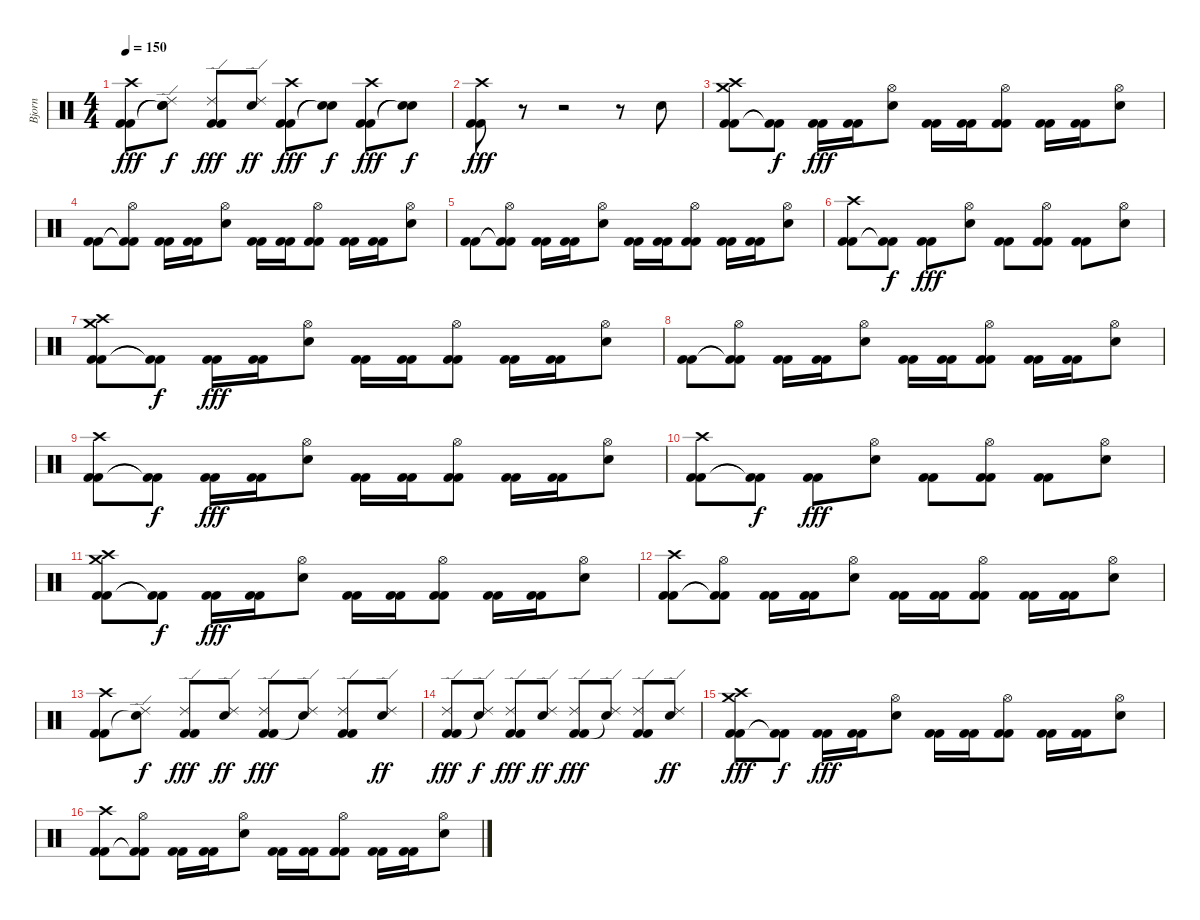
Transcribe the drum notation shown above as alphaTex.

\track ("Bjorn" "Bjorn") {instrument percussion}
\staff {score}
\articulation defaults
\ts (4 4)
\tempo 150
\clef neutral
\ks c
("Kick (hit) 2" "Kick (hit) 2" "Crash high (hit)").8{dy fff} ("Snare (hit)"{t} "Snare (hit)"{t} "Ride (edge) 2").8{dy f} ("Kick (hit) 2" "Kick (hit) 2" "Ride (edge) 2").8{dy fff} ("Snare (hit) 2" "Ride (edge) 2").8{dy ff} ("Kick (hit) 2" "Kick (hit) 2" "Crash high (hit)").8{dy fff} ("Snare (hit)"{t} "Snare (hit)"{t}).8{dy f} ("Kick (hit) 2" "Kick (hit) 2" "Crash high (hit)").8{dy fff} ("Snare (hit)"{t} "Snare (hit)"{t}).8{dy f} |
("Kick (hit) 2" "Kick (hit) 2" "Crash high (hit)").8{dy fff} r.8 r.2 r.8 "Snare (hit) 2".8 |
("Kick (hit) 2" "Kick (hit) 2" "Crash high (hit)" "Crash medium (hit)").8 ("Kick (hit) 2"{t} "Kick (hit) 2"{t}).8{dy f} ("Kick (hit) 2" "Kick (hit) 2").16{dy fff} ("Kick (hit) 2" "Kick (hit) 2").16 ("Snare (hit) 2" "Hi-Hat (open)").8 ("Kick (hit) 2" "Kick (hit) 2").16 ("Kick (hit) 2" "Kick (hit) 2").16 ("Kick (hit) 2" "Kick (hit) 2" "Hi-Hat (open)").8 ("Kick (hit) 2" "Kick (hit) 2").16 ("Kick (hit) 2" "Kick (hit) 2").16 ("Snare (hit) 2" "Hi-Hat (open)").8 |
("Kick (hit) 2" "Kick (hit) 2").8 ("Kick (hit) 2"{t} "Kick (hit) 2"{t} "Hi-Hat (open)").8 ("Kick (hit) 2" "Kick (hit) 2").16 ("Kick (hit) 2" "Kick (hit) 2").16 ("Snare (hit) 2" "Hi-Hat (open)").8 ("Kick (hit) 2" "Kick (hit) 2").16 ("Kick (hit) 2" "Kick (hit) 2").16 ("Kick (hit) 2" "Kick (hit) 2" "Hi-Hat (open)").8 ("Kick (hit) 2" "Kick (hit) 2").16 ("Kick (hit) 2" "Kick (hit) 2").16 ("Snare (hit) 2" "Hi-Hat (open)").8 |
("Kick (hit) 2" "Kick (hit) 2").8 ("Kick (hit) 2"{t} "Kick (hit) 2"{t} "Hi-Hat (open)").8 ("Kick (hit) 2" "Kick (hit) 2").16 ("Kick (hit) 2" "Kick (hit) 2").16 ("Snare (hit) 2" "Hi-Hat (open)").8 ("Kick (hit) 2" "Kick (hit) 2").16 ("Kick (hit) 2" "Kick (hit) 2").16 ("Kick (hit) 2" "Kick (hit) 2" "Hi-Hat (open)").8 ("Kick (hit) 2" "Kick (hit) 2").16 ("Kick (hit) 2" "Kick (hit) 2").16 ("Snare (hit) 2" "Hi-Hat (open)").8 |
("Kick (hit) 2" "Kick (hit) 2" "Crash high (hit)").8 ("Kick (hit) 2"{t} "Kick (hit) 2"{t}).8{dy f} ("Kick (hit) 2" "Kick (hit) 2").8{dy fff} ("Snare (hit) 2" "Hi-Hat (open)").8 ("Kick (hit) 2" "Kick (hit) 2").8 ("Kick (hit) 2" "Kick (hit) 2" "Hi-Hat (open)").8 ("Kick (hit) 2" "Kick (hit) 2").8 ("Snare (hit) 2" "Hi-Hat (open)").8 |
("Kick (hit) 2" "Kick (hit) 2" "Crash high (hit)" "Crash medium (hit)").8 ("Kick (hit) 2"{t} "Kick (hit) 2"{t}).8{dy f} ("Kick (hit) 2" "Kick (hit) 2").16{dy fff} ("Kick (hit) 2" "Kick (hit) 2").16 ("Snare (hit) 2" "Hi-Hat (open)").8 ("Kick (hit) 2" "Kick (hit) 2").16 ("Kick (hit) 2" "Kick (hit) 2").16 ("Kick (hit) 2" "Kick (hit) 2" "Hi-Hat (open)").8 ("Kick (hit) 2" "Kick (hit) 2").16 ("Kick (hit) 2" "Kick (hit) 2").16 ("Snare (hit) 2" "Hi-Hat (open)").8 |
("Kick (hit) 2" "Kick (hit) 2").8 ("Kick (hit) 2"{t} "Kick (hit) 2"{t} "Hi-Hat (open)").8 ("Kick (hit) 2" "Kick (hit) 2").16 ("Kick (hit) 2" "Kick (hit) 2").16 ("Snare (hit) 2" "Hi-Hat (open)").8 ("Kick (hit) 2" "Kick (hit) 2").16 ("Kick (hit) 2" "Kick (hit) 2").16 ("Kick (hit) 2" "Kick (hit) 2" "Hi-Hat (open)").8 ("Kick (hit) 2" "Kick (hit) 2").16 ("Kick (hit) 2" "Kick (hit) 2").16 ("Snare (hit) 2" "Hi-Hat (open)").8 |
("Kick (hit) 2" "Kick (hit) 2" "Crash high (hit)").8 ("Kick (hit) 2"{t} "Kick (hit) 2"{t}).8{dy f} ("Kick (hit) 2" "Kick (hit) 2").16{dy fff} ("Kick (hit) 2" "Kick (hit) 2").16 ("Snare (hit) 2" "Hi-Hat (open)").8 ("Kick (hit) 2" "Kick (hit) 2").16 ("Kick (hit) 2" "Kick (hit) 2").16 ("Kick (hit) 2" "Kick (hit) 2" "Hi-Hat (open)").8 ("Kick (hit) 2" "Kick (hit) 2").16 ("Kick (hit) 2" "Kick (hit) 2").16 ("Snare (hit) 2" "Hi-Hat (open)").8 |
("Kick (hit) 2" "Kick (hit) 2" "Crash high (hit)").8 ("Kick (hit) 2"{t} "Kick (hit) 2"{t}).8{dy f} ("Kick (hit) 2" "Kick (hit) 2").8{dy fff} ("Snare (hit) 2" "Hi-Hat (open)").8 ("Kick (hit) 2" "Kick (hit) 2").8 ("Kick (hit) 2" "Kick (hit) 2" "Hi-Hat (open)").8 ("Kick (hit) 2" "Kick (hit) 2").8 ("Snare (hit) 2" "Hi-Hat (open)").8 |
("Kick (hit) 2" "Kick (hit) 2" "Crash high (hit)" "Crash medium (hit)").8 ("Kick (hit) 2"{t} "Kick (hit) 2"{t}).8{dy f} ("Kick (hit) 2" "Kick (hit) 2").16{dy fff} ("Kick (hit) 2" "Kick (hit) 2").16 ("Snare (hit) 2" "Hi-Hat (open)").8 ("Kick (hit) 2" "Kick (hit) 2").16 ("Kick (hit) 2" "Kick (hit) 2").16 ("Kick (hit) 2" "Kick (hit) 2" "Hi-Hat (open)").8 ("Kick (hit) 2" "Kick (hit) 2").16 ("Kick (hit) 2" "Kick (hit) 2").16 ("Snare (hit) 2" "Hi-Hat (open)").8 |
("Kick (hit) 2" "Kick (hit) 2" "Crash high (hit)").8 ("Kick (hit) 2"{t} "Kick (hit) 2"{t} "Hi-Hat (open)").8 ("Kick (hit) 2" "Kick (hit) 2").16 ("Kick (hit) 2" "Kick (hit) 2").16 ("Snare (hit) 2" "Hi-Hat (open)").8 ("Kick (hit) 2" "Kick (hit) 2").16 ("Kick (hit) 2" "Kick (hit) 2").16 ("Kick (hit) 2" "Kick (hit) 2" "Hi-Hat (open)").8 ("Kick (hit) 2" "Kick (hit) 2").16 ("Kick (hit) 2" "Kick (hit) 2").16 ("Snare (hit) 2" "Hi-Hat (open)").8 |
("Kick (hit) 2" "Kick (hit) 2" "Crash high (hit)").8 ("Snare (hit)"{t} "Ride (edge) 2").8{dy f} ("Kick (hit) 2" "Kick (hit) 2" "Ride (edge) 2").8{dy fff} ("Snare (hit) 2" "Ride (edge) 2").8{dy ff} ("Kick (hit) 2" "Kick (hit) 2" "Ride (edge) 2").8{dy fff} ("Snare (hit)"{t} "Ride (edge) 2").8 ("Kick (hit) 2" "Kick (hit) 2" "Ride (edge) 2").8 ("Snare (hit) 2" "Ride (edge) 2").8{dy ff} |
("Kick (hit) 2" "Kick (hit) 2" "Ride (edge) 2").8{dy fff} ("Snare (hit)"{t} "Ride (edge) 2").8{dy f} ("Kick (hit) 2" "Kick (hit) 2" "Ride (edge) 2").8{dy fff} ("Snare (hit) 2" "Ride (edge) 2").8{dy ff} ("Kick (hit) 2" "Kick (hit) 2" "Ride (edge) 2").8{dy fff} ("Snare (hit)"{t} "Ride (edge) 2").8 ("Kick (hit) 2" "Kick (hit) 2" "Ride (edge) 2").8 ("Snare (hit) 2" "Ride (edge) 2").8{dy ff} |
("Kick (hit) 2" "Kick (hit) 2" "Crash high (hit)" "Crash medium (hit)").8{dy fff} ("Kick (hit) 2"{t} "Kick (hit) 2"{t}).8{dy f} ("Kick (hit) 2" "Kick (hit) 2").16{dy fff} ("Kick (hit) 2" "Kick (hit) 2").16 ("Snare (hit) 2" "Hi-Hat (open)").8 ("Kick (hit) 2" "Kick (hit) 2").16 ("Kick (hit) 2" "Kick (hit) 2").16 ("Kick (hit) 2" "Kick (hit) 2" "Hi-Hat (open)").8 ("Kick (hit) 2" "Kick (hit) 2").16 ("Kick (hit) 2" "Kick (hit) 2").16 ("Snare (hit) 2" "Hi-Hat (open)").8 |
("Kick (hit) 2" "Kick (hit) 2" "Crash high (hit)").8 ("Kick (hit) 2"{t} "Kick (hit) 2"{t} "Hi-Hat (open)").8 ("Kick (hit) 2" "Kick (hit) 2").16 ("Kick (hit) 2" "Kick (hit) 2").16 ("Snare (hit) 2" "Hi-Hat (open)").8 ("Kick (hit) 2" "Kick (hit) 2").16 ("Kick (hit) 2" "Kick (hit) 2").16 ("Kick (hit) 2" "Kick (hit) 2" "Hi-Hat (open)").8 ("Kick (hit) 2" "Kick (hit) 2").16 ("Kick (hit) 2" "Kick (hit) 2").16 ("Snare (hit) 2" "Hi-Hat (open)").8
